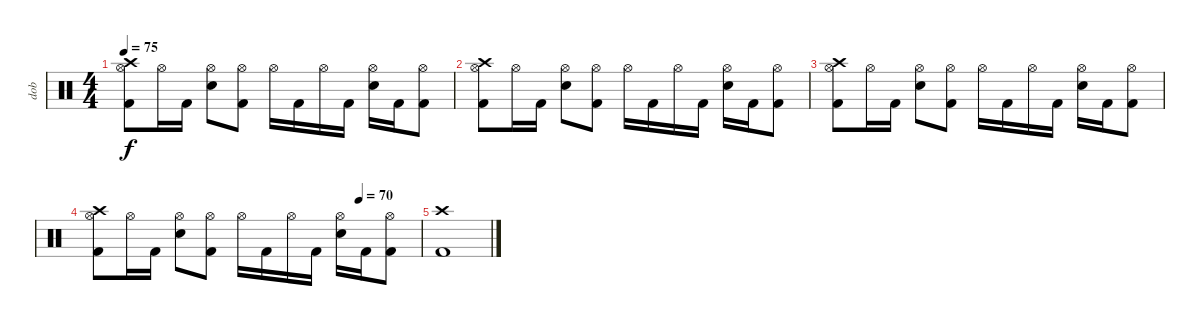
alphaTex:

\track ("dob" "dob") {instrument percussion}
\staff {score}
\articulation defaults
\ts (4 4)
\tempo 75
\clef neutral
\ks c
("Kick (hit) 2" "Hi-Hat (open)" "Crash high (hit)").8{dy f} "Hi-Hat (open)".16 "Kick (hit) 2".16 ("Snare (hit) 2" "Hi-Hat (open)").8 ("Kick (hit) 2" "Hi-Hat (open)").8 "Hi-Hat (open)".16 "Kick (hit) 2".16 "Hi-Hat (open)".16 "Kick (hit) 2".16 ("Snare (hit) 2" "Hi-Hat (open)").16 "Kick (hit) 2".16 ("Kick (hit) 2" "Hi-Hat (open)").8 |
("Kick (hit) 2" "Hi-Hat (open)" "Crash high (hit)").8 "Hi-Hat (open)".16 "Kick (hit) 2".16 ("Snare (hit) 2" "Hi-Hat (open)").8 ("Kick (hit) 2" "Hi-Hat (open)").8 "Hi-Hat (open)".16 "Kick (hit) 2".16 "Hi-Hat (open)".16 "Kick (hit) 2".16 ("Snare (hit) 2" "Hi-Hat (open)").16 "Kick (hit) 2".16 ("Kick (hit) 2" "Hi-Hat (open)").8 |
("Kick (hit) 2" "Hi-Hat (open)" "Crash high (hit)").8 "Hi-Hat (open)".16 "Kick (hit) 2".16 ("Snare (hit) 2" "Hi-Hat (open)").8 ("Kick (hit) 2" "Hi-Hat (open)").8 "Hi-Hat (open)".16 "Kick (hit) 2".16 "Hi-Hat (open)".16 "Kick (hit) 2".16 ("Snare (hit) 2" "Hi-Hat (open)").16 "Kick (hit) 2".16 ("Kick (hit) 2" "Hi-Hat (open)").8 |
\tempo (70 0.8125)
("Kick (hit) 2" "Hi-Hat (open)" "Crash high (hit)").8 "Hi-Hat (open)".16 "Kick (hit) 2".16 ("Snare (hit) 2" "Hi-Hat (open)").8 ("Kick (hit) 2" "Hi-Hat (open)").8 "Hi-Hat (open)".16 "Kick (hit) 2".16 "Hi-Hat (open)".16 "Kick (hit) 2".16 ("Snare (hit) 2" "Hi-Hat (open)").16 "Kick (hit) 2".16 ("Kick (hit) 2" "Hi-Hat (open)").8 |
("Kick (hit) 2" "Crash high (hit)").1
